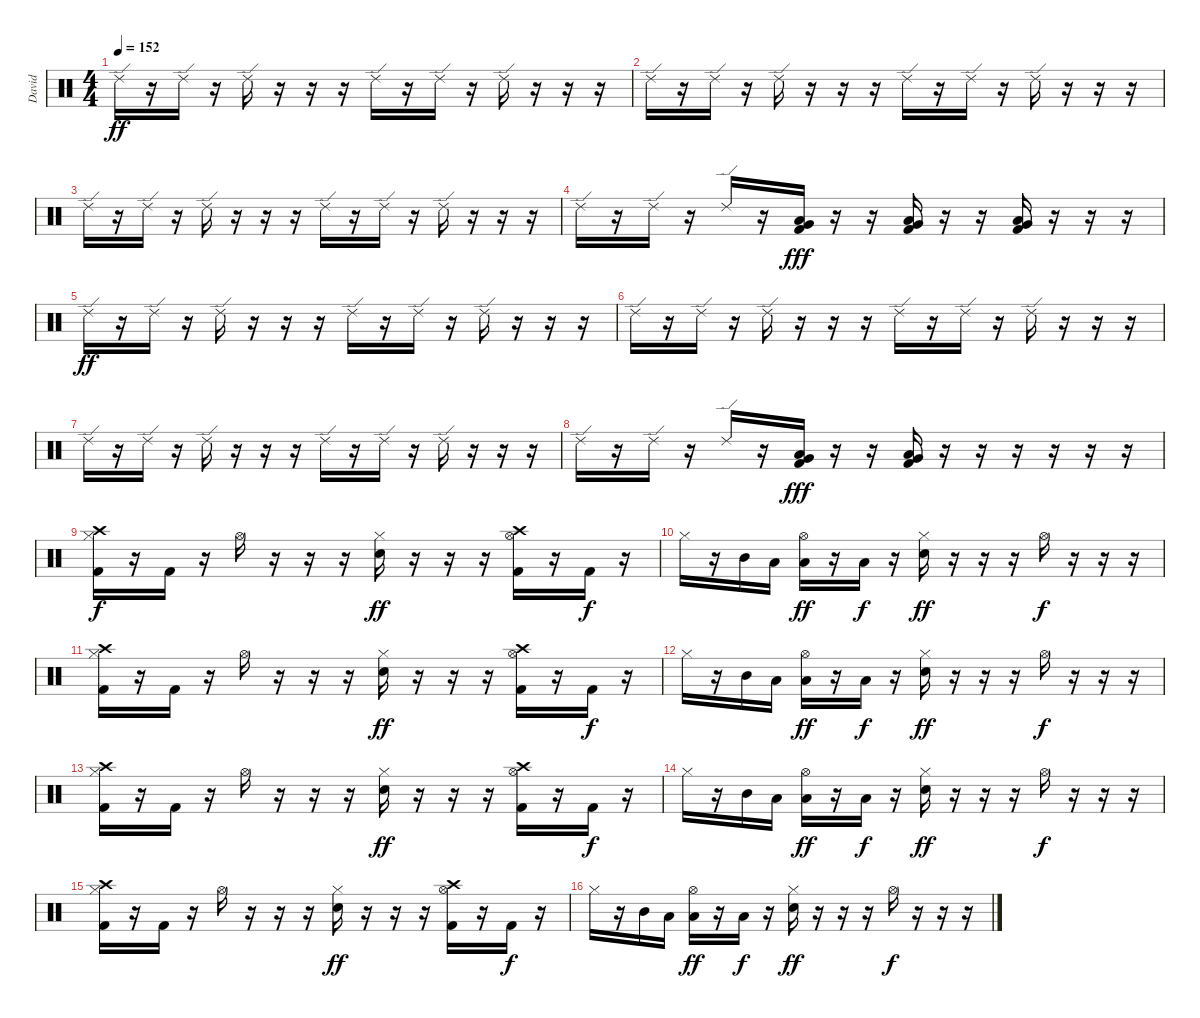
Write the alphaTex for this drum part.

\track ("David" "David") {instrument percussion}
\staff {score}
\articulation defaults
\ts (4 4)
\tempo 152
\clef neutral
\ks c "Ride (edge) 2".16{dy ff}
r.16 "Ride (edge) 2".16 r.16 "Ride (edge) 2".16 r.16 r.16 r.16 "Ride (edge) 2".16 r.16 "Ride (edge) 2".16 r.16 "Ride (edge) 2".16 r.16 r.16 r.16 |
"Ride (edge) 2".16 r.16 "Ride (edge) 2".16 r.16 "Ride (edge) 2".16 r.16 r.16 r.16 "Ride (edge) 2".16 r.16 "Ride (edge) 2".16 r.16 "Ride (edge) 2".16 r.16 r.16 r.16 |
"Ride (edge) 2".16 r.16 "Ride (edge) 2".16 r.16 "Ride (edge) 2".16 r.16 r.16 r.16 "Ride (edge) 2".16 r.16 "Ride (edge) 2".16 r.16 "Ride (edge) 2".16 r.16 r.16 r.16 |
"Ride (edge) 2".16 r.16 "Ride (edge) 2".16 r.16 "Ride (edge) 2".16 r.16 ("Very Low Tom (hit)" "Low Floor Tom (hit)" "Kick (hit) 2").16{dy fff} r.16 r.16 ("Very Low Tom (hit)" "Low Floor Tom (hit)" "Kick (hit) 2").16 r.16 r.16 ("Very Low Tom (hit)" "Low Floor Tom (hit)" "Kick (hit) 2").16 r.16 r.16 r.16 |
"Ride (edge) 2".16{dy ff} r.16 "Ride (edge) 2".16 r.16 "Ride (edge) 2".16 r.16 r.16 r.16 "Ride (edge) 2".16 r.16 "Ride (edge) 2".16 r.16 "Ride (edge) 2".16 r.16 r.16 r.16 |
"Ride (edge) 2".16 r.16 "Ride (edge) 2".16 r.16 "Ride (edge) 2".16 r.16 r.16 r.16 "Ride (edge) 2".16 r.16 "Ride (edge) 2".16 r.16 "Ride (edge) 2".16 r.16 r.16 r.16 |
"Ride (edge) 2".16 r.16 "Ride (edge) 2".16 r.16 "Ride (edge) 2".16 r.16 r.16 r.16 "Ride (edge) 2".16 r.16 "Ride (edge) 2".16 r.16 "Ride (edge) 2".16 r.16 r.16 r.16 |
"Ride (edge) 2".16 r.16 "Ride (edge) 2".16 r.16 "Ride (edge) 2".16 r.16 ("Very Low Tom (hit)" "Low Floor Tom (hit)" "Kick (hit) 2").16{dy fff} r.16 r.16 ("Very Low Tom (hit)" "Low Floor Tom (hit)" "Kick (hit) 2").16 r.16 r.16 r.16 r.16 r.16 r.16 |
("Crash high (hit)" "Hi-Hat (closed)" "Kick (hit) 2").16{dy f} r.16 "Kick (hit) 2".16 r.16 "Hi-Hat (open)".16 r.16 r.16 r.16 ("Hi-Hat (closed)" "Electric Snare (hit)").16{dy ff} r.16 r.16 r.16 ("Crash high (hit)" "Hi-Hat (open)" "Kick (hit) 2").16 r.16 "Kick (hit) 2".16{dy f} r.16 |
"Hi-Hat (closed)".16 r.16 "Mid Tom (hit)".16 "Low Floor Tom (hit)".16 ("Hi-Hat (open)" "Low Floor Tom (hit)").16{dy ff} r.16 "Low Floor Tom (hit)".16{dy f} r.16 ("Hi-Hat (closed)" "Electric Snare (hit)").16{dy ff} r.16 r.16 r.16 "Hi-Hat (open)".16{dy f} r.16 r.16 r.16 |
("Crash high (hit)" "Hi-Hat (closed)" "Kick (hit) 2").16 r.16 "Kick (hit) 2".16 r.16 "Hi-Hat (open)".16 r.16 r.16 r.16 ("Hi-Hat (closed)" "Electric Snare (hit)").16{dy ff} r.16 r.16 r.16 ("Crash high (hit)" "Hi-Hat (open)" "Kick (hit) 2").16 r.16 "Kick (hit) 2".16{dy f} r.16 |
"Hi-Hat (closed)".16 r.16 "Mid Tom (hit)".16 "Low Floor Tom (hit)".16 ("Hi-Hat (open)" "Low Floor Tom (hit)").16{dy ff} r.16 "Low Floor Tom (hit)".16{dy f} r.16 ("Hi-Hat (closed)" "Electric Snare (hit)").16{dy ff} r.16 r.16 r.16 "Hi-Hat (open)".16{dy f} r.16 r.16 r.16 |
("Crash high (hit)" "Hi-Hat (closed)" "Kick (hit) 2").16 r.16 "Kick (hit) 2".16 r.16 "Hi-Hat (open)".16 r.16 r.16 r.16 ("Hi-Hat (closed)" "Electric Snare (hit)").16{dy ff} r.16 r.16 r.16 ("Crash high (hit)" "Hi-Hat (open)" "Kick (hit) 2").16 r.16 "Kick (hit) 2".16{dy f} r.16 |
"Hi-Hat (closed)".16 r.16 "Mid Tom (hit)".16 "Low Floor Tom (hit)".16 ("Hi-Hat (open)" "Low Floor Tom (hit)").16{dy ff} r.16 "Low Floor Tom (hit)".16{dy f} r.16 ("Hi-Hat (closed)" "Electric Snare (hit)").16{dy ff} r.16 r.16 r.16 "Hi-Hat (open)".16{dy f} r.16 r.16 r.16 |
("Crash high (hit)" "Hi-Hat (closed)" "Kick (hit) 2").16 r.16 "Kick (hit) 2".16 r.16 "Hi-Hat (open)".16 r.16 r.16 r.16 ("Hi-Hat (closed)" "Electric Snare (hit)").16{dy ff} r.16 r.16 r.16 ("Crash high (hit)" "Hi-Hat (open)" "Kick (hit) 2").16 r.16 "Kick (hit) 2".16{dy f} r.16 |
"Hi-Hat (closed)".16 r.16 "Mid Tom (hit)".16 "Low Floor Tom (hit)".16 ("Hi-Hat (open)" "Low Floor Tom (hit)").16{dy ff} r.16 "Low Floor Tom (hit)".16{dy f} r.16 ("Hi-Hat (closed)" "Electric Snare (hit)").16{dy ff} r.16 r.16 r.16 "Hi-Hat (open)".16{dy f} r.16 r.16 r.16
